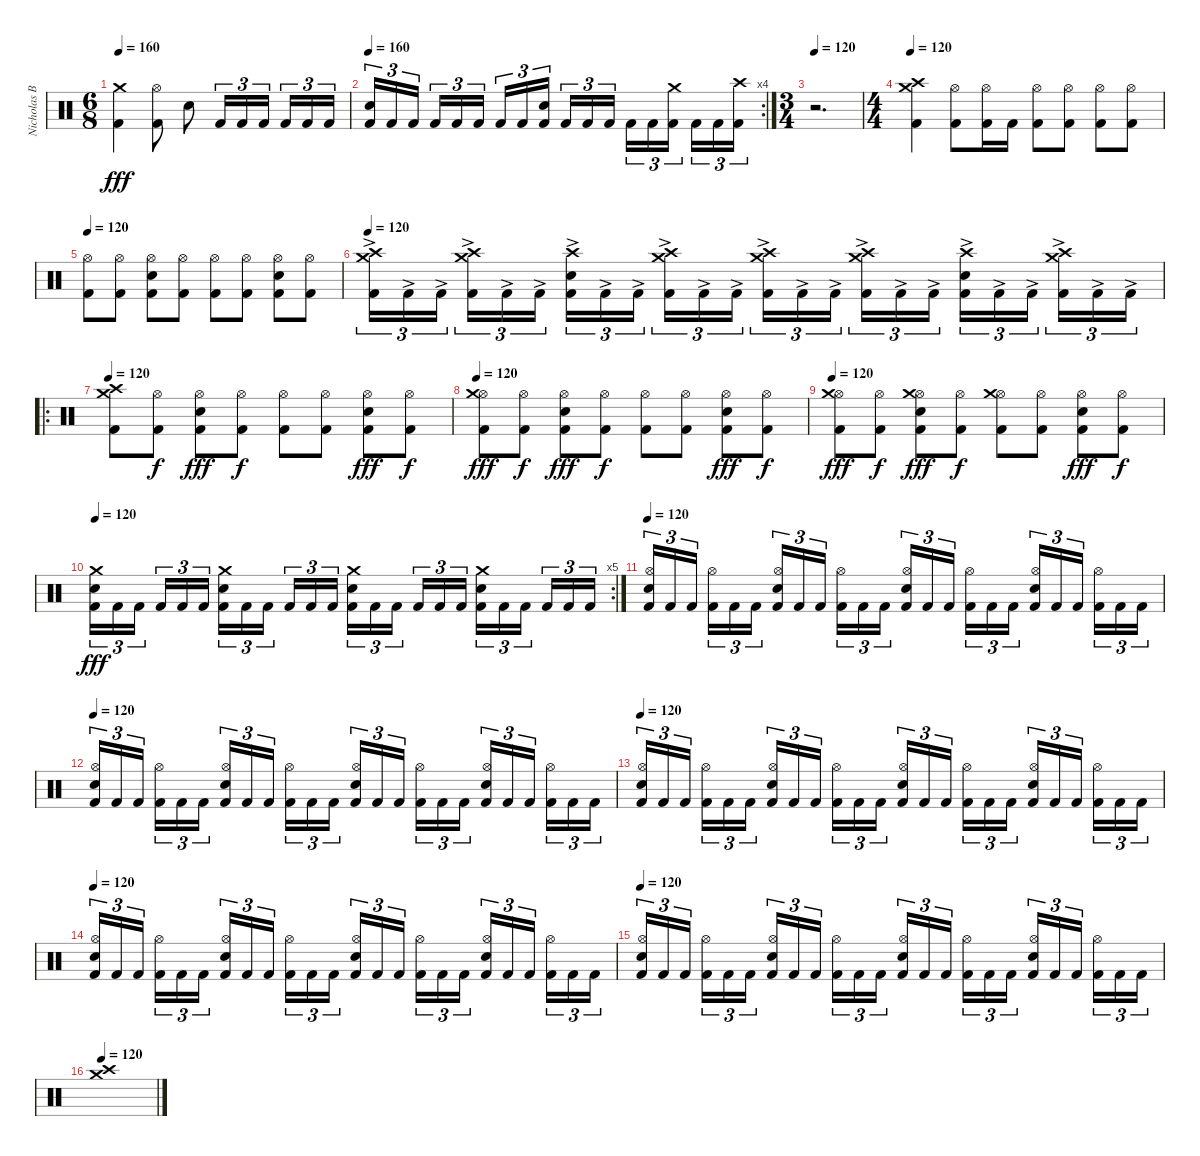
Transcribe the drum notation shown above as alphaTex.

\track ("Nicholas Barker - (Drums And Percussion)" "Nicholas B") {instrument percussion}
\staff {score}
\articulation defaults
\ts (6 8)
\tempo 160
\clef neutral
\ks c
("Crash medium (hit)" "Kick (hit) 2").4{dy fff} ("Hi-Hat (open)" "Kick (hit) 2").8 "Electric Snare (hit)".8 "Kick (hit) 2".16{tu (3 2)} "Kick (hit) 2".16{tu (3 2)} "Kick (hit) 2".16{tu (3 2)} "Kick (hit) 2".16{tu (3 2)} "Kick (hit) 2".16{tu (3 2)} "Kick (hit) 2".16{tu (3 2)} |
\rc 4
\tempo 160
("Electric Snare (hit)" "Kick (hit) 2").16{tu (3 2)} "Kick (hit) 2".16{tu (3 2)} "Kick (hit) 2".16{tu (3 2)} "Kick (hit) 2".16{tu (3 2)} "Kick (hit) 2".16{tu (3 2)} "Kick (hit) 2".16{tu (3 2)} "Kick (hit) 2".16{tu (3 2)} "Kick (hit) 2".16{tu (3 2)} ("Electric Snare (hit)" "Kick (hit) 2").16{tu (3 2)} "Kick (hit) 2".16{tu (3 2)} "Kick (hit) 2".16{tu (3 2)} "Kick (hit) 2".16{tu (3 2)} "Kick (hit) 2".16{tu (3 2)} "Kick (hit) 2".16{tu (3 2)} ("Crash medium (hit)" "Kick (hit) 2").16{tu (3 2)} "Kick (hit) 2".16{tu (3 2)} "Kick (hit) 2".16{tu (3 2)} ("Crash high (hit)" "Kick (hit) 2").16{tu (3 2)} |
\ts (3 4)
\tempo 120
r.2{d} |
\ts (4 4)
\tempo 120
("Crash medium (hit)" "Crash high (hit)" "Kick (hit) 2").4 ("Hi-Hat (open)" "Kick (hit) 2").8 ("Hi-Hat (open)" "Kick (hit) 2").16 "Kick (hit) 2".16 ("Hi-Hat (open)" "Kick (hit) 2").8 ("Hi-Hat (open)" "Kick (hit) 2").8 ("Hi-Hat (open)" "Kick (hit) 2").8 ("Hi-Hat (open)" "Kick (hit) 2").8 |
\tempo 120
("Hi-Hat (open)" "Kick (hit) 2").8 ("Hi-Hat (open)" "Kick (hit) 2").8 ("Hi-Hat (open)" "Electric Snare (hit)" "Kick (hit) 2").8 ("Hi-Hat (open)" "Kick (hit) 2").8 ("Hi-Hat (open)" "Kick (hit) 2").8 ("Hi-Hat (open)" "Kick (hit) 2").8 ("Hi-Hat (open)" "Electric Snare (hit)" "Kick (hit) 2").8 ("Hi-Hat (open)" "Kick (hit) 2").8 |
\tempo 120
("Crash high (hit)" "Crash medium (hit)" "Kick (hit) 2"{ac}).16{tu (3 2)} "Kick (hit) 2"{ac}.16{tu (3 2)} "Kick (hit) 2"{ac}.16{tu (3 2)} ("Crash high (hit)" "Crash medium (hit)" "Kick (hit) 2"{ac}).16{tu (3 2)} "Kick (hit) 2"{ac}.16{tu (3 2)} "Kick (hit) 2"{ac}.16{tu (3 2)} ("Crash high (hit)" "Electric Snare (hit)" "Kick (hit) 2"{ac}).16{tu (3 2)} "Kick (hit) 2"{ac}.16{tu (3 2)} "Kick (hit) 2"{ac}.16{tu (3 2)} ("Crash high (hit)" "Crash medium (hit)" "Kick (hit) 2"{ac}).16{tu (3 2)} "Kick (hit) 2"{ac}.16{tu (3 2)} "Kick (hit) 2"{ac}.16{tu (3 2)} ("Crash high (hit)" "Crash medium (hit)" "Kick (hit) 2"{ac}).16{tu (3 2)} "Kick (hit) 2"{ac}.16{tu (3 2)} "Kick (hit) 2"{ac}.16{tu (3 2)} ("Crash high (hit)" "Crash medium (hit)" "Kick (hit) 2"{ac}).16{tu (3 2)} "Kick (hit) 2"{ac}.16{tu (3 2)} "Kick (hit) 2"{ac}.16{tu (3 2)} ("Crash high (hit)" "Electric Snare (hit)" "Kick (hit) 2"{ac}).16{tu (3 2)} "Kick (hit) 2"{ac}.16{tu (3 2)} "Kick (hit) 2"{ac}.16{tu (3 2)} ("Crash high (hit)" "Crash medium (hit)" "Kick (hit) 2"{ac}).16{tu (3 2)} "Kick (hit) 2"{ac}.16{tu (3 2)} "Kick (hit) 2"{ac}.16{tu (3 2)} |
\ro
\tempo 120
("Crash high (hit)" "Crash medium (hit)" "Kick (hit) 2").8 ("Hi-Hat (open)" "Kick (hit) 2").8{dy f} ("Hi-Hat (open)" "Electric Snare (hit)" "Kick (hit) 2").8{dy fff} ("Hi-Hat (open)" "Kick (hit) 2").8{dy f} ("Hi-Hat (open)" "Kick (hit) 2").8 ("Hi-Hat (open)" "Kick (hit) 2").8 ("Hi-Hat (open)" "Electric Snare (hit)" "Kick (hit) 2").8{dy fff} ("Hi-Hat (open)" "Kick (hit) 2").8{dy f} |
\tempo 120
("Hi-Hat (open)" "Crash medium (hit)" "Kick (hit) 2").8{dy fff} ("Hi-Hat (open)" "Kick (hit) 2").8{dy f} ("Hi-Hat (open)" "Electric Snare (hit)" "Kick (hit) 2").8{dy fff} ("Hi-Hat (open)" "Kick (hit) 2").8{dy f} ("Hi-Hat (open)" "Kick (hit) 2").8 ("Hi-Hat (open)" "Kick (hit) 2").8 ("Hi-Hat (open)" "Electric Snare (hit)" "Kick (hit) 2").8{dy fff} ("Hi-Hat (open)" "Kick (hit) 2").8{dy f} |
\tempo 120
("Hi-Hat (open)" "Crash medium (hit)" "Kick (hit) 2").8{dy fff} ("Hi-Hat (open)" "Kick (hit) 2").8{dy f} ("Hi-Hat (open)" "Crash medium (hit)" "Electric Snare (hit)" "Kick (hit) 2").8{dy fff} ("Hi-Hat (open)" "Kick (hit) 2").8{dy f} ("Hi-Hat (open)" "Crash medium (hit)" "Kick (hit) 2").8 ("Hi-Hat (open)" "Kick (hit) 2").8 ("Hi-Hat (open)" "Electric Snare (hit)" "Kick (hit) 2").8{dy fff} ("Hi-Hat (open)" "Kick (hit) 2").8{dy f} |
\rc 5
\tempo 120
("Crash medium (hit)" "Electric Snare (hit)" "Kick (hit) 2").16{tu (3 2) dy fff} "Kick (hit) 2".16{tu (3 2)} "Kick (hit) 2".16{tu (3 2)} "Kick (hit) 2".16{tu (3 2)} "Kick (hit) 2".16{tu (3 2)} "Kick (hit) 2".16{tu (3 2)} ("Crash medium (hit)" "Electric Snare (hit)" "Kick (hit) 2").16{tu (3 2)} "Kick (hit) 2".16{tu (3 2)} "Kick (hit) 2".16{tu (3 2)} "Kick (hit) 2".16{tu (3 2)} "Kick (hit) 2".16{tu (3 2)} "Kick (hit) 2".16{tu (3 2)} ("Crash medium (hit)" "Electric Snare (hit)" "Kick (hit) 2").16{tu (3 2)} "Kick (hit) 2".16{tu (3 2)} "Kick (hit) 2".16{tu (3 2)} "Kick (hit) 2".16{tu (3 2)} "Kick (hit) 2".16{tu (3 2)} "Kick (hit) 2".16{tu (3 2)} ("Crash medium (hit)" "Electric Snare (hit)" "Kick (hit) 2").16{tu (3 2)} "Kick (hit) 2".16{tu (3 2)} "Kick (hit) 2".16{tu (3 2)} "Kick (hit) 2".16{tu (3 2)} "Kick (hit) 2".16{tu (3 2)} "Kick (hit) 2".16{tu (3 2)} |
\tempo 120
("Hi-Hat (open)" "Electric Snare (hit)" "Kick (hit) 2").16{tu (3 2)} "Kick (hit) 2".16{tu (3 2)} "Kick (hit) 2".16{tu (3 2)} ("Hi-Hat (open)" "Kick (hit) 2").16{tu (3 2)} "Kick (hit) 2".16{tu (3 2)} "Kick (hit) 2".16{tu (3 2)} ("Hi-Hat (open)" "Electric Snare (hit)" "Kick (hit) 2").16{tu (3 2)} "Kick (hit) 2".16{tu (3 2)} "Kick (hit) 2".16{tu (3 2)} ("Hi-Hat (open)" "Kick (hit) 2").16{tu (3 2)} "Kick (hit) 2".16{tu (3 2)} "Kick (hit) 2".16{tu (3 2)} ("Hi-Hat (open)" "Electric Snare (hit)" "Kick (hit) 2").16{tu (3 2)} "Kick (hit) 2".16{tu (3 2)} "Kick (hit) 2".16{tu (3 2)} ("Hi-Hat (open)" "Kick (hit) 2").16{tu (3 2)} "Kick (hit) 2".16{tu (3 2)} "Kick (hit) 2".16{tu (3 2)} ("Hi-Hat (open)" "Electric Snare (hit)" "Kick (hit) 2").16{tu (3 2)} "Kick (hit) 2".16{tu (3 2)} "Kick (hit) 2".16{tu (3 2)} ("Hi-Hat (open)" "Kick (hit) 2").16{tu (3 2)} "Kick (hit) 2".16{tu (3 2)} "Kick (hit) 2".16{tu (3 2)} |
\tempo 120
("Hi-Hat (open)" "Electric Snare (hit)" "Kick (hit) 2").16{tu (3 2)} "Kick (hit) 2".16{tu (3 2)} "Kick (hit) 2".16{tu (3 2)} ("Hi-Hat (open)" "Kick (hit) 2").16{tu (3 2)} "Kick (hit) 2".16{tu (3 2)} "Kick (hit) 2".16{tu (3 2)} ("Hi-Hat (open)" "Electric Snare (hit)" "Kick (hit) 2").16{tu (3 2)} "Kick (hit) 2".16{tu (3 2)} "Kick (hit) 2".16{tu (3 2)} ("Hi-Hat (open)" "Kick (hit) 2").16{tu (3 2)} "Kick (hit) 2".16{tu (3 2)} "Kick (hit) 2".16{tu (3 2)} ("Hi-Hat (open)" "Electric Snare (hit)" "Kick (hit) 2").16{tu (3 2)} "Kick (hit) 2".16{tu (3 2)} "Kick (hit) 2".16{tu (3 2)} ("Hi-Hat (open)" "Kick (hit) 2").16{tu (3 2)} "Kick (hit) 2".16{tu (3 2)} "Kick (hit) 2".16{tu (3 2)} ("Hi-Hat (open)" "Electric Snare (hit)" "Kick (hit) 2").16{tu (3 2)} "Kick (hit) 2".16{tu (3 2)} "Kick (hit) 2".16{tu (3 2)} ("Hi-Hat (open)" "Kick (hit) 2").16{tu (3 2)} "Kick (hit) 2".16{tu (3 2)} "Kick (hit) 2".16{tu (3 2)} |
\tempo 120
("Hi-Hat (open)" "Electric Snare (hit)" "Kick (hit) 2").16{tu (3 2)} "Kick (hit) 2".16{tu (3 2)} "Kick (hit) 2".16{tu (3 2)} ("Hi-Hat (open)" "Kick (hit) 2").16{tu (3 2)} "Kick (hit) 2".16{tu (3 2)} "Kick (hit) 2".16{tu (3 2)} ("Hi-Hat (open)" "Electric Snare (hit)" "Kick (hit) 2").16{tu (3 2)} "Kick (hit) 2".16{tu (3 2)} "Kick (hit) 2".16{tu (3 2)} ("Hi-Hat (open)" "Kick (hit) 2").16{tu (3 2)} "Kick (hit) 2".16{tu (3 2)} "Kick (hit) 2".16{tu (3 2)} ("Hi-Hat (open)" "Electric Snare (hit)" "Kick (hit) 2").16{tu (3 2)} "Kick (hit) 2".16{tu (3 2)} "Kick (hit) 2".16{tu (3 2)} ("Hi-Hat (open)" "Kick (hit) 2").16{tu (3 2)} "Kick (hit) 2".16{tu (3 2)} "Kick (hit) 2".16{tu (3 2)} ("Hi-Hat (open)" "Electric Snare (hit)" "Kick (hit) 2").16{tu (3 2)} "Kick (hit) 2".16{tu (3 2)} "Kick (hit) 2".16{tu (3 2)} ("Hi-Hat (open)" "Kick (hit) 2").16{tu (3 2)} "Kick (hit) 2".16{tu (3 2)} "Kick (hit) 2".16{tu (3 2)} |
\tempo 120
("Hi-Hat (open)" "Electric Snare (hit)" "Kick (hit) 2").16{tu (3 2)} "Kick (hit) 2".16{tu (3 2)} "Kick (hit) 2".16{tu (3 2)} ("Hi-Hat (open)" "Kick (hit) 2").16{tu (3 2)} "Kick (hit) 2".16{tu (3 2)} "Kick (hit) 2".16{tu (3 2)} ("Hi-Hat (open)" "Electric Snare (hit)" "Kick (hit) 2").16{tu (3 2)} "Kick (hit) 2".16{tu (3 2)} "Kick (hit) 2".16{tu (3 2)} ("Hi-Hat (open)" "Kick (hit) 2").16{tu (3 2)} "Kick (hit) 2".16{tu (3 2)} "Kick (hit) 2".16{tu (3 2)} ("Hi-Hat (open)" "Electric Snare (hit)" "Kick (hit) 2").16{tu (3 2)} "Kick (hit) 2".16{tu (3 2)} "Kick (hit) 2".16{tu (3 2)} ("Hi-Hat (open)" "Kick (hit) 2").16{tu (3 2)} "Kick (hit) 2".16{tu (3 2)} "Kick (hit) 2".16{tu (3 2)} ("Hi-Hat (open)" "Electric Snare (hit)" "Kick (hit) 2").16{tu (3 2)} "Kick (hit) 2".16{tu (3 2)} "Kick (hit) 2".16{tu (3 2)} ("Hi-Hat (open)" "Kick (hit) 2").16{tu (3 2)} "Kick (hit) 2".16{tu (3 2)} "Kick (hit) 2".16{tu (3 2)} |
\tempo 120
("Hi-Hat (open)" "Electric Snare (hit)" "Kick (hit) 2").16{tu (3 2)} "Kick (hit) 2".16{tu (3 2)} "Kick (hit) 2".16{tu (3 2)} ("Hi-Hat (open)" "Kick (hit) 2").16{tu (3 2)} "Kick (hit) 2".16{tu (3 2)} "Kick (hit) 2".16{tu (3 2)} ("Hi-Hat (open)" "Electric Snare (hit)" "Kick (hit) 2").16{tu (3 2)} "Kick (hit) 2".16{tu (3 2)} "Kick (hit) 2".16{tu (3 2)} ("Hi-Hat (open)" "Kick (hit) 2").16{tu (3 2)} "Kick (hit) 2".16{tu (3 2)} "Kick (hit) 2".16{tu (3 2)} ("Hi-Hat (open)" "Electric Snare (hit)" "Kick (hit) 2").16{tu (3 2)} "Kick (hit) 2".16{tu (3 2)} "Kick (hit) 2".16{tu (3 2)} ("Hi-Hat (open)" "Kick (hit) 2").16{tu (3 2)} "Kick (hit) 2".16{tu (3 2)} "Kick (hit) 2".16{tu (3 2)} ("Hi-Hat (open)" "Electric Snare (hit)" "Kick (hit) 2").16{tu (3 2)} "Kick (hit) 2".16{tu (3 2)} "Kick (hit) 2".16{tu (3 2)} ("Hi-Hat (open)" "Kick (hit) 2").16{tu (3 2)} "Kick (hit) 2".16{tu (3 2)} "Kick (hit) 2".16{tu (3 2)} |
\tempo 120
("Crash medium (hit)" "Crash high (hit)").1
